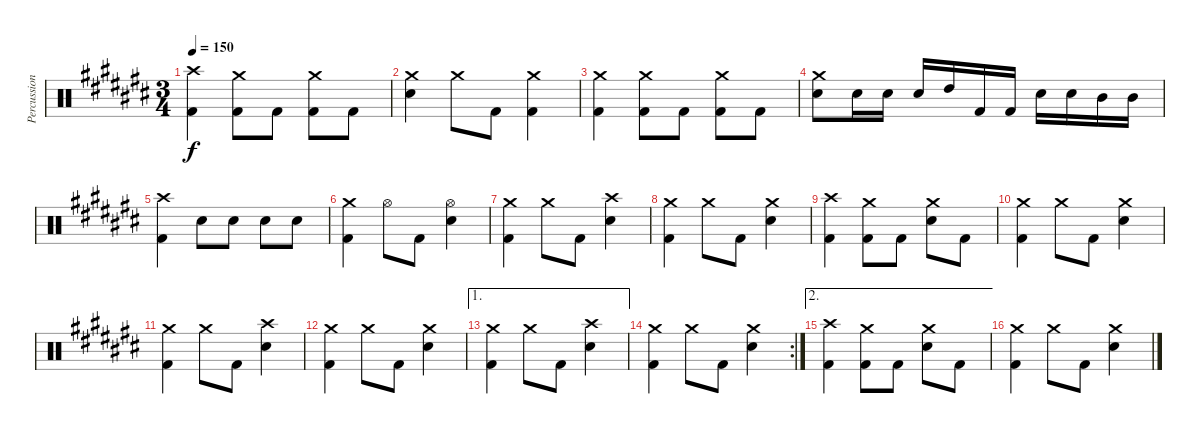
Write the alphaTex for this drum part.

\track ("Percussion" "Percussion") {instrument percussion}
\staff {score}
\articulation defaults
\ts (3 4)
\tempo 150
\clef neutral
\ks c#
("Crash high (hit)" "Kick (hit) 2").4{dy f} ("Crash medium (hit)" "Kick (hit) 2").8 "Kick (hit) 2".8 ("Crash medium (hit)" "Kick (hit) 2").8 "Kick (hit) 2".8 |
("Crash medium (hit)" "Electric Snare (hit)").4 "Crash medium (hit)".8 "Kick (hit) 2".8 ("Crash medium (hit)" "Kick (hit) 2").4 |
("Crash medium (hit)" "Kick (hit) 2").4 ("Crash medium (hit)" "Kick (hit) 2").8 "Kick (hit) 2".8 ("Crash medium (hit)" "Kick (hit) 2").8 "Kick (hit) 2".8 |
("Crash medium (hit)" "Electric Snare (hit)").8 "Electric Snare (hit)".16 "Electric Snare (hit)".16 "Electric Snare (hit)".16 "High Tom (hit)".16 "Kick (hit) 2".16 "Kick (hit) 2".16 "Electric Snare (hit)".16 "Electric Snare (hit)".16 "Mid Tom (hit)".16 "Mid Tom (hit)".16 |
("Crash high (hit)" "Kick (hit) 2").4 "Electric Snare (hit)".8 "Electric Snare (hit)".8 "Electric Snare (hit)".8 "Electric Snare (hit)".8 |
("Crash medium (hit)" "Kick (hit) 2").4 "Hi-Hat (open)".8 "Kick (hit) 2".8 ("Hi-Hat (open)" "Electric Snare (hit)").4 |
("Crash medium (hit)" "Kick (hit) 2").4 "Crash medium (hit)".8 "Kick (hit) 2".8 ("Crash high (hit)" "Electric Snare (hit)").4 |
("Crash medium (hit)" "Kick (hit) 2").4 "Crash medium (hit)".8 "Kick (hit) 2".8 ("Crash medium (hit)" "Electric Snare (hit)").4 |
("Crash high (hit)" "Kick (hit) 2").4 ("Crash medium (hit)" "Kick (hit) 2").8 "Kick (hit) 2".8 ("Crash medium (hit)" "Electric Snare (hit)").8 "Kick (hit) 2".8 |
("Crash medium (hit)" "Kick (hit) 2").4 "Crash medium (hit)".8 "Kick (hit) 2".8 ("Crash medium (hit)" "Electric Snare (hit)").4 |
("Crash medium (hit)" "Kick (hit) 2").4 "Crash medium (hit)".8 "Kick (hit) 2".8 ("Crash high (hit)" "Electric Snare (hit)").4 |
("Crash medium (hit)" "Kick (hit) 2").4 "Crash medium (hit)".8 "Kick (hit) 2".8 ("Crash medium (hit)" "Electric Snare (hit)").4 |
\ae 1
("Crash medium (hit)" "Kick (hit) 2").4 "Crash medium (hit)".8 "Kick (hit) 2".8 ("Crash high (hit)" "Electric Snare (hit)").4 |
\rc 2
("Crash medium (hit)" "Kick (hit) 2").4 "Crash medium (hit)".8 "Kick (hit) 2".8 ("Crash medium (hit)" "Electric Snare (hit)").4 |
\ae 2
("Crash high (hit)" "Kick (hit) 2").4 ("Crash medium (hit)" "Kick (hit) 2").8 "Kick (hit) 2".8 ("Crash medium (hit)" "Electric Snare (hit)").8 "Kick (hit) 2".8 |
("Crash medium (hit)" "Kick (hit) 2").4 "Crash medium (hit)".8 "Kick (hit) 2".8 ("Crash medium (hit)" "Electric Snare (hit)").4
